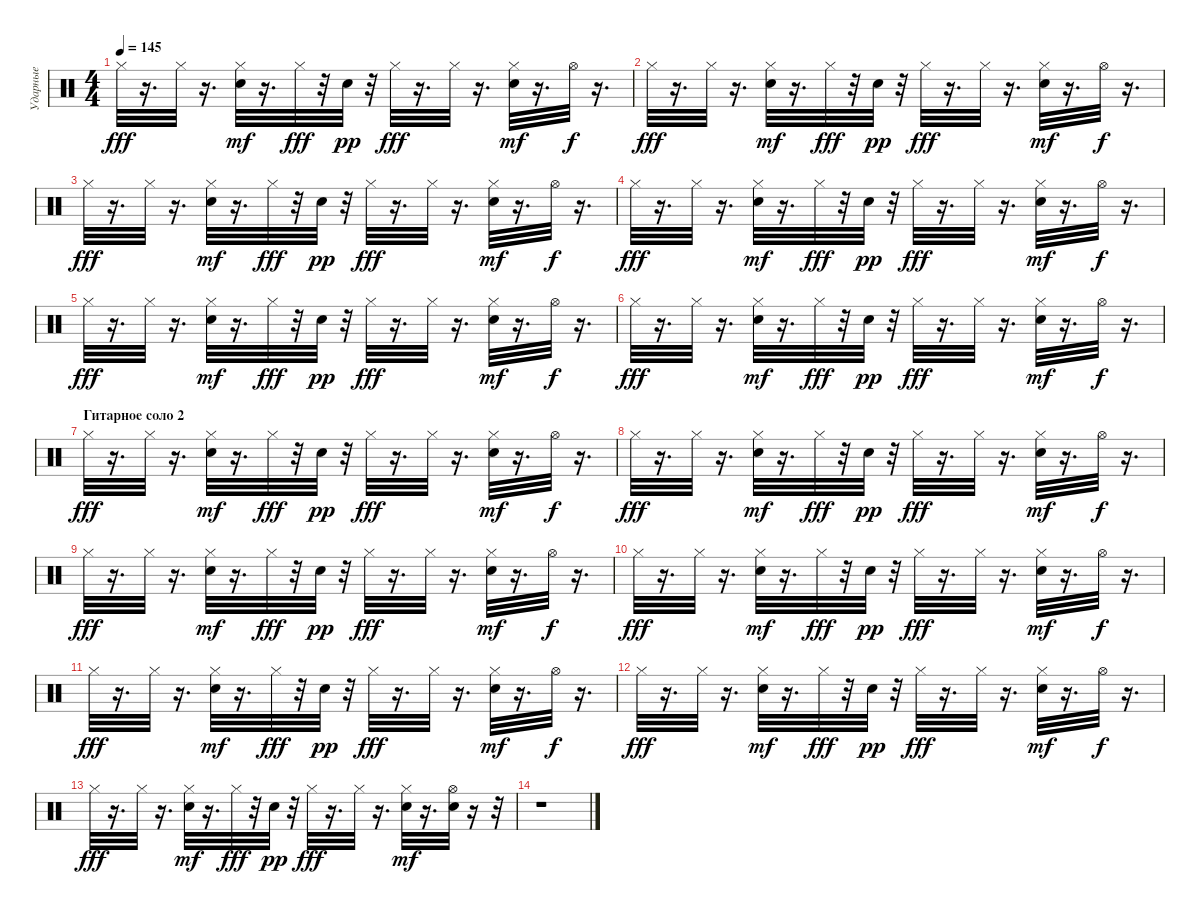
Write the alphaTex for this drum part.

\track ("Ударные" "Ударные") {instrument percussion}
\staff {score}
\articulation defaults
\ts (4 4)
\tempo 145
\clef neutral
\ks c "Hi-Hat (closed)".32{dy fff}
r.16{d} "Hi-Hat (closed)".32 r.16{d} ("Hi-Hat (closed)" "Electric Snare (hit)").32{dy mf} r.16{d} "Hi-Hat (closed)".32{dy fff} r.32 "Electric Snare (hit)".32{dy pp} r.32 "Hi-Hat (closed)".32{dy fff} r.16{d} "Hi-Hat (closed)".32 r.16{d} ("Hi-Hat (closed)" "Electric Snare (hit)").32{dy mf} r.16{d} "Hi-Hat (open)".32{dy f} r.16{d} |
"Hi-Hat (closed)".32{dy fff} r.16{d} "Hi-Hat (closed)".32 r.16{d} ("Hi-Hat (closed)" "Electric Snare (hit)").32{dy mf} r.16{d} "Hi-Hat (closed)".32{dy fff} r.32 "Electric Snare (hit)".32{dy pp} r.32 "Hi-Hat (closed)".32{dy fff} r.16{d} "Hi-Hat (closed)".32 r.16{d} ("Hi-Hat (closed)" "Electric Snare (hit)").32{dy mf} r.16{d} "Hi-Hat (open)".32{dy f} r.16{d} |
"Hi-Hat (closed)".32{dy fff} r.16{d} "Hi-Hat (closed)".32 r.16{d} ("Hi-Hat (closed)" "Electric Snare (hit)").32{dy mf} r.16{d} "Hi-Hat (closed)".32{dy fff} r.32 "Electric Snare (hit)".32{dy pp} r.32 "Hi-Hat (closed)".32{dy fff} r.16{d} "Hi-Hat (closed)".32 r.16{d} ("Hi-Hat (closed)" "Electric Snare (hit)").32{dy mf} r.16{d} "Hi-Hat (open)".32{dy f} r.16{d} |
"Hi-Hat (closed)".32{dy fff} r.16{d} "Hi-Hat (closed)".32 r.16{d} ("Hi-Hat (closed)" "Electric Snare (hit)").32{dy mf} r.16{d} "Hi-Hat (closed)".32{dy fff} r.32 "Electric Snare (hit)".32{dy pp} r.32 "Hi-Hat (closed)".32{dy fff} r.16{d} "Hi-Hat (closed)".32 r.16{d} ("Hi-Hat (closed)" "Electric Snare (hit)").32{dy mf} r.16{d} "Hi-Hat (open)".32{dy f} r.16{d} |
"Hi-Hat (closed)".32{dy fff} r.16{d} "Hi-Hat (closed)".32 r.16{d} ("Hi-Hat (closed)" "Electric Snare (hit)").32{dy mf} r.16{d} "Hi-Hat (closed)".32{dy fff} r.32 "Electric Snare (hit)".32{dy pp} r.32 "Hi-Hat (closed)".32{dy fff} r.16{d} "Hi-Hat (closed)".32 r.16{d} ("Hi-Hat (closed)" "Electric Snare (hit)").32{dy mf} r.16{d} "Hi-Hat (open)".32{dy f} r.16{d} |
"Hi-Hat (closed)".32{dy fff} r.16{d} "Hi-Hat (closed)".32 r.16{d} ("Hi-Hat (closed)" "Electric Snare (hit)").32{dy mf} r.16{d} "Hi-Hat (closed)".32{dy fff} r.32 "Electric Snare (hit)".32{dy pp} r.32 "Hi-Hat (closed)".32{dy fff} r.16{d} "Hi-Hat (closed)".32 r.16{d} ("Hi-Hat (closed)" "Electric Snare (hit)").32{dy mf} r.16{d} "Hi-Hat (open)".32{dy f} r.16{d} |
\section ("" "Гитарное соло 2")
"Hi-Hat (closed)".32{dy fff} r.16{d} "Hi-Hat (closed)".32 r.16{d} ("Hi-Hat (closed)" "Electric Snare (hit)").32{dy mf} r.16{d} "Hi-Hat (closed)".32{dy fff} r.32 "Electric Snare (hit)".32{dy pp} r.32 "Hi-Hat (closed)".32{dy fff} r.16{d} "Hi-Hat (closed)".32 r.16{d} ("Hi-Hat (closed)" "Electric Snare (hit)").32{dy mf} r.16{d} "Hi-Hat (open)".32{dy f} r.16{d} |
"Hi-Hat (closed)".32{dy fff} r.16{d} "Hi-Hat (closed)".32 r.16{d} ("Hi-Hat (closed)" "Electric Snare (hit)").32{dy mf} r.16{d} "Hi-Hat (closed)".32{dy fff} r.32 "Electric Snare (hit)".32{dy pp} r.32 "Hi-Hat (closed)".32{dy fff} r.16{d} "Hi-Hat (closed)".32 r.16{d} ("Hi-Hat (closed)" "Electric Snare (hit)").32{dy mf} r.16{d} "Hi-Hat (open)".32{dy f} r.16{d} |
"Hi-Hat (closed)".32{dy fff} r.16{d} "Hi-Hat (closed)".32 r.16{d} ("Hi-Hat (closed)" "Electric Snare (hit)").32{dy mf} r.16{d} "Hi-Hat (closed)".32{dy fff} r.32 "Electric Snare (hit)".32{dy pp} r.32 "Hi-Hat (closed)".32{dy fff} r.16{d} "Hi-Hat (closed)".32 r.16{d} ("Hi-Hat (closed)" "Electric Snare (hit)").32{dy mf} r.16{d} "Hi-Hat (open)".32{dy f} r.16{d} |
"Hi-Hat (closed)".32{dy fff} r.16{d} "Hi-Hat (closed)".32 r.16{d} ("Hi-Hat (closed)" "Electric Snare (hit)").32{dy mf} r.16{d} "Hi-Hat (closed)".32{dy fff} r.32 "Electric Snare (hit)".32{dy pp} r.32 "Hi-Hat (closed)".32{dy fff} r.16{d} "Hi-Hat (closed)".32 r.16{d} ("Hi-Hat (closed)" "Electric Snare (hit)").32{dy mf} r.16{d} "Hi-Hat (open)".32{dy f} r.16{d} |
"Hi-Hat (closed)".32{dy fff} r.16{d} "Hi-Hat (closed)".32 r.16{d} ("Hi-Hat (closed)" "Electric Snare (hit)").32{dy mf} r.16{d} "Hi-Hat (closed)".32{dy fff} r.32 "Electric Snare (hit)".32{dy pp} r.32 "Hi-Hat (closed)".32{dy fff} r.16{d} "Hi-Hat (closed)".32 r.16{d} ("Hi-Hat (closed)" "Electric Snare (hit)").32{dy mf} r.16{d} "Hi-Hat (open)".32{dy f} r.16{d} |
"Hi-Hat (closed)".32{dy fff} r.16{d} "Hi-Hat (closed)".32 r.16{d} ("Hi-Hat (closed)" "Electric Snare (hit)").32{dy mf} r.16{d} "Hi-Hat (closed)".32{dy fff} r.32 "Electric Snare (hit)".32{dy pp} r.32 "Hi-Hat (closed)".32{dy fff} r.16{d} "Hi-Hat (closed)".32 r.16{d} ("Hi-Hat (closed)" "Electric Snare (hit)").32{dy mf} r.16{d} "Hi-Hat (open)".32{dy f} r.16{d} |
"Hi-Hat (closed)".32{dy fff} r.16{d} "Hi-Hat (closed)".32 r.16{d} ("Hi-Hat (closed)" "Electric Snare (hit)").32{dy mf} r.16{d} "Hi-Hat (closed)".32{dy fff} r.32 "Electric Snare (hit)".32{dy pp} r.32 "Hi-Hat (closed)".32{dy fff} r.16{d} "Hi-Hat (closed)".32 r.16{d} ("Hi-Hat (closed)" "Electric Snare (hit)").32{dy mf} r.16{d} ("Electric Snare (hit)" "Hi-Hat (open)").32 r.16 r.32 |
r.1
